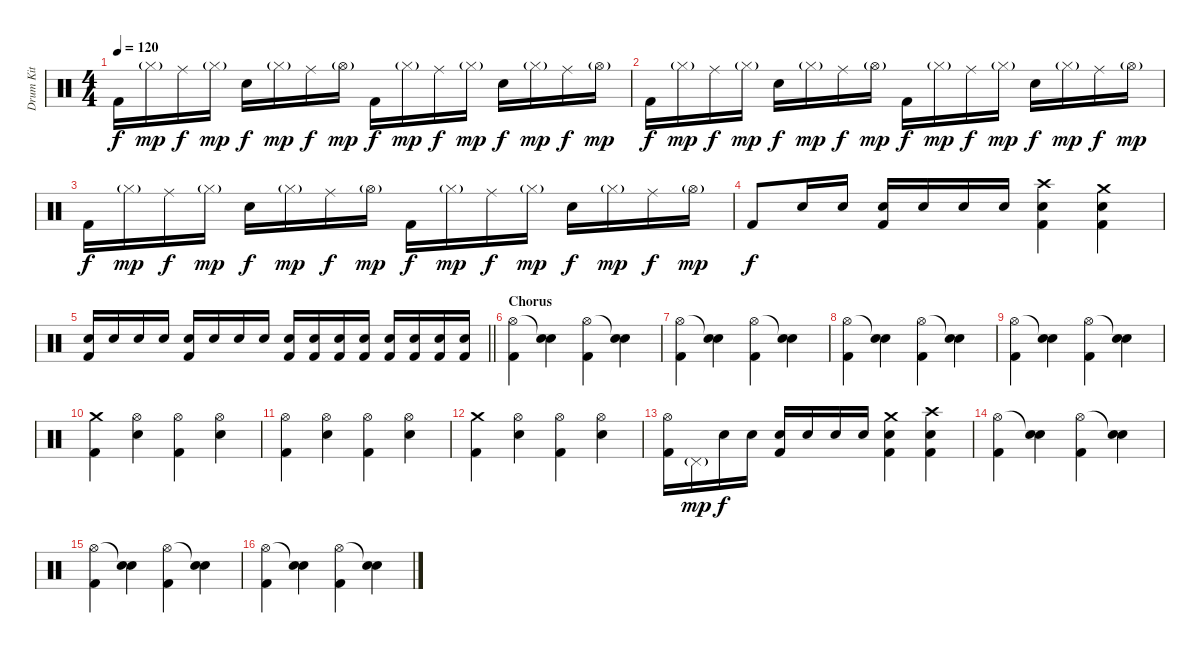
\track ("Drum Kit" "Drum Kit") {instrument percussion}
\staff {score}
\articulation defaults
\ts (4 4)
\tempo 120
\clef neutral
\ks c "Kick (hit) 2".16{dy f} "Hi-Hat (closed)"{g}.16{dy mp} "Ride (middle)".16{dy f} "Hi-Hat (closed)"{g}.16{dy mp} "Electric Snare (hit)".16{dy f} "Hi-Hat (closed)"{g}.16{dy mp} "Ride (middle)".16{dy f} "Hi-Hat (open)"{g}.16{dy mp} "Kick (hit) 2".16{dy f} "Hi-Hat (closed)"{g}.16{dy mp} "Ride (middle)".16{dy f} "Hi-Hat (closed)"{g}.16{dy mp} "Electric Snare (hit)".16{dy f} "Hi-Hat (closed)"{g}.16{dy mp} "Ride (middle)".16{dy f} "Hi-Hat (open)"{g}.16{dy mp}
|
"Kick (hit) 2".16{dy f} "Hi-Hat (closed)"{g}.16{dy mp} "Ride (middle)".16{dy f} "Hi-Hat (closed)"{g}.16{dy mp} "Electric Snare (hit)".16{dy f} "Hi-Hat (closed)"{g}.16{dy mp} "Ride (middle)".16{dy f} "Hi-Hat (open)"{g}.16{dy mp} "Kick (hit) 2".16{dy f} "Hi-Hat (closed)"{g}.16{dy mp} "Ride (middle)".16{dy f} "Hi-Hat (closed)"{g}.16{dy mp} "Electric Snare (hit)".16{dy f} "Hi-Hat (closed)"{g}.16{dy mp} "Ride (middle)".16{dy f} "Hi-Hat (open)"{g}.16{dy mp} |
"Kick (hit) 2".16{dy f} "Hi-Hat (closed)"{g}.16{dy mp} "Ride (middle)".16{dy f} "Hi-Hat (closed)"{g}.16{dy mp} "Electric Snare (hit)".16{dy f} "Hi-Hat (closed)"{g}.16{dy mp} "Ride (middle)".16{dy f} "Hi-Hat (open)"{g}.16{dy mp} "Kick (hit) 2".16{dy f} "Hi-Hat (closed)"{g}.16{dy mp} "Ride (middle)".16{dy f} "Hi-Hat (closed)"{g}.16{dy mp} "Electric Snare (hit)".16{dy f} "Hi-Hat (closed)"{g}.16{dy mp} "Ride (middle)".16{dy f} "Hi-Hat (open)"{g}.16{dy mp} |
"Kick (hit) 2".8{dy f} "Electric Snare (hit)".16 "Electric Snare (hit)".16 ("Electric Snare (hit)" "Kick (hit) 2").16 "Electric Snare (hit)".16 "Electric Snare (hit)".16 "Electric Snare (hit)".16 ("Crash high (hit)" "Electric Snare (hit)" "Kick (hit) 2").4 ("Crash medium (hit)" "Electric Snare (hit)" "Kick (hit) 2").4 |
\barLineRight lightlight
("Electric Snare (hit)" "Kick (hit) 2").16 "Electric Snare (hit)".16 "Electric Snare (hit)".16 "Electric Snare (hit)".16 ("Electric Snare (hit)" "Kick (hit) 2").16 "Electric Snare (hit)".16 "Electric Snare (hit)".16 "Electric Snare (hit)".16 ("Electric Snare (hit)" "Kick (hit) 2").16 ("Electric Snare (hit)" "Kick (hit) 2").16 ("Electric Snare (hit)" "Kick (hit) 2").16 ("Electric Snare (hit)" "Kick (hit) 2").16 ("Electric Snare (hit)" "Kick (hit) 2").16 ("Electric Snare (hit)" "Kick (hit) 2").16 ("Electric Snare (hit)" "Kick (hit) 2").16 ("Electric Snare (hit)" "Kick (hit) 2").16 |
\section ("" "Chorus")
("Hi-Hat (open)" "Kick (hit) 2").4 ("Snare (hit)"{t} "Electric Snare (hit)").4 ("Hi-Hat (open)" "Kick (hit) 2").4 ("Snare (hit)"{t} "Electric Snare (hit)").4 |
("Hi-Hat (open)" "Kick (hit) 2").4 ("Snare (hit)"{t} "Electric Snare (hit)").4 ("Hi-Hat (open)" "Kick (hit) 2").4 ("Snare (hit)"{t} "Electric Snare (hit)").4 |
("Hi-Hat (open)" "Kick (hit) 2").4 ("Snare (hit)"{t} "Electric Snare (hit)").4 ("Hi-Hat (open)" "Kick (hit) 2").4 ("Snare (hit)"{t} "Electric Snare (hit)").4 |
("Hi-Hat (open)" "Kick (hit) 2").4 ("Snare (hit)"{t} "Electric Snare (hit)").4 ("Hi-Hat (open)" "Kick (hit) 2").4 ("Snare (hit)"{t} "Electric Snare (hit)").4 |
("Crash medium (hit)" "Kick (hit) 2").4 ("Hi-Hat (open)" "Electric Snare (hit)").4 ("Hi-Hat (open)" "Kick (hit) 2").4 ("Hi-Hat (open)" "Electric Snare (hit)").4 |
("Hi-Hat (open)" "Kick (hit) 2").4 ("Hi-Hat (open)" "Electric Snare (hit)").4 ("Hi-Hat (open)" "Kick (hit) 2").4 ("Hi-Hat (open)" "Electric Snare (hit)").4 |
("Crash medium (hit)" "Kick (hit) 2").4 ("Hi-Hat (open)" "Electric Snare (hit)").4 ("Hi-Hat (open)" "Kick (hit) 2").4 ("Hi-Hat (open)" "Electric Snare (hit)").4 |
("Hi-Hat (open)" "Kick (hit) 2").16 "Pedal Hi-Hat (hit)"{g}.16{dy mp} "Electric Snare (hit)".16{dy f} "Electric Snare (hit)".16 ("Electric Snare (hit)" "Kick (hit) 2").16 "Electric Snare (hit)".16 "Electric Snare (hit)".16 "Electric Snare (hit)".16 ("Crash medium (hit)" "Electric Snare (hit)" "Kick (hit) 2").4 ("Crash high (hit)" "Electric Snare (hit)" "Kick (hit) 2").4 |
("Hi-Hat (open)" "Kick (hit) 2").4 ("Snare (hit)"{t} "Electric Snare (hit)").4 ("Hi-Hat (open)" "Kick (hit) 2").4 ("Snare (hit)"{t} "Electric Snare (hit)").4 |
("Hi-Hat (open)" "Kick (hit) 2").4 ("Snare (hit)"{t} "Electric Snare (hit)").4 ("Hi-Hat (open)" "Kick (hit) 2").4 ("Snare (hit)"{t} "Electric Snare (hit)").4 |
("Hi-Hat (open)" "Kick (hit) 2").4 ("Snare (hit)"{t} "Electric Snare (hit)").4 ("Hi-Hat (open)" "Kick (hit) 2").4 ("Snare (hit)"{t} "Electric Snare (hit)").4
